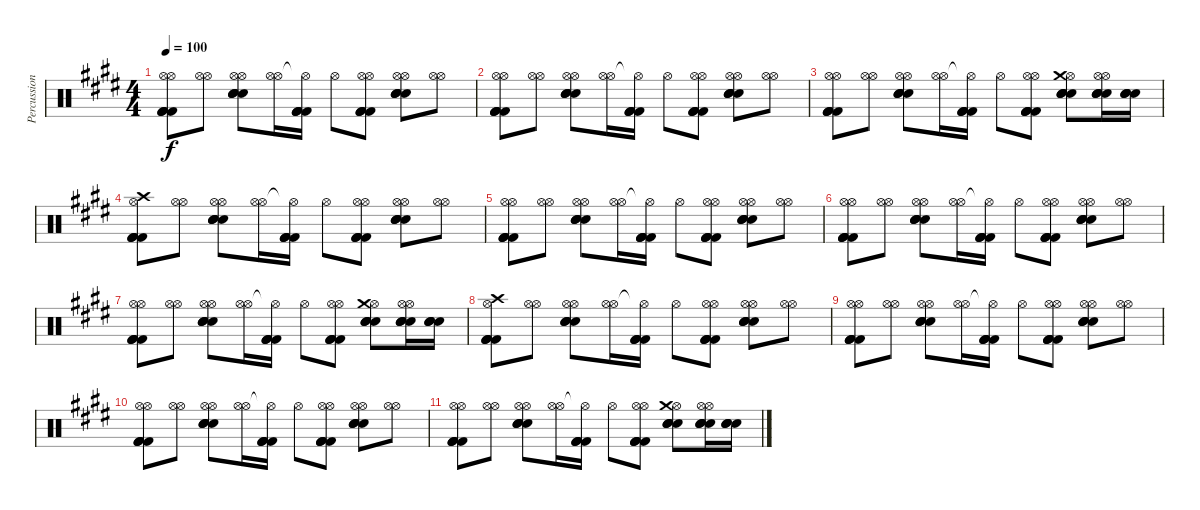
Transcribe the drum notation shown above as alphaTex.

\track ("Percussion" "Percussion") {instrument percussion}
\staff {score}
\articulation defaults
\ts (4 4)
\tempo 100
\clef neutral
\ks e
("Hi-Hat (open)" "Kick (hit) 2" "Kick (hit) 2" "Kick (hit) 2" "Kick (hit) 2" "Hi-Hat (open)").8{dy f} ("Hi-Hat (open)" "Hi-Hat (open)").8 ("Hi-Hat (open)" "Electric Snare (hit)" "Electric Snare (hit)" "Electric Snare (hit)" "Electric Snare (hit)" "Hi-Hat (open)").8 ("Hi-Hat (open)" "Hi-Hat (open)").16 ("Hi-Hat (open)"{t} "Kick (hit) 2" "Kick (hit) 2" "Kick (hit) 2" "Kick (hit) 2").16 "Hi-Hat (open)".8 ("Hi-Hat (open)" "Kick (hit) 2" "Kick (hit) 2" "Kick (hit) 2" "Kick (hit) 2" "Hi-Hat (open)").8 ("Hi-Hat (open)" "Electric Snare (hit)" "Electric Snare (hit)" "Electric Snare (hit)" "Electric Snare (hit)" "Hi-Hat (open)").8 ("Hi-Hat (open)" "Hi-Hat (open)").8 |
("Hi-Hat (open)" "Kick (hit) 2" "Kick (hit) 2" "Kick (hit) 2" "Kick (hit) 2" "Hi-Hat (open)").8 ("Hi-Hat (open)" "Hi-Hat (open)").8 ("Hi-Hat (open)" "Electric Snare (hit)" "Electric Snare (hit)" "Electric Snare (hit)" "Electric Snare (hit)" "Hi-Hat (open)").8 ("Hi-Hat (open)" "Hi-Hat (open)").16 ("Hi-Hat (open)"{t} "Kick (hit) 2" "Kick (hit) 2" "Kick (hit) 2" "Kick (hit) 2").16 "Hi-Hat (open)".8 ("Hi-Hat (open)" "Kick (hit) 2" "Kick (hit) 2" "Kick (hit) 2" "Kick (hit) 2" "Hi-Hat (open)").8 ("Hi-Hat (open)" "Electric Snare (hit)" "Electric Snare (hit)" "Electric Snare (hit)" "Electric Snare (hit)" "Hi-Hat (open)").8 ("Hi-Hat (open)" "Hi-Hat (open)").8 |
("Hi-Hat (open)" "Kick (hit) 2" "Kick (hit) 2" "Kick (hit) 2" "Kick (hit) 2" "Hi-Hat (open)").8 ("Hi-Hat (open)" "Hi-Hat (open)").8 ("Hi-Hat (open)" "Electric Snare (hit)" "Electric Snare (hit)" "Electric Snare (hit)" "Electric Snare (hit)" "Hi-Hat (open)").8 ("Hi-Hat (open)" "Hi-Hat (open)").16 ("Hi-Hat (open)"{t} "Kick (hit) 2" "Kick (hit) 2" "Kick (hit) 2" "Kick (hit) 2").16 "Hi-Hat (open)".8 ("Hi-Hat (open)" "Kick (hit) 2" "Kick (hit) 2" "Kick (hit) 2" "Kick (hit) 2" "Hi-Hat (open)").8 ("Hi-Hat (open)" "Electric Snare (hit)" "Electric Snare (hit)" "Electric Snare (hit)" "Electric Snare (hit)" "Crash medium (hit)").8 ("Hi-Hat (open)" "Electric Snare (hit)" "Electric Snare (hit)" "Electric Snare (hit)" "Electric Snare (hit)" "Hi-Hat (open)").16 ("Electric Snare (hit)" "Electric Snare (hit)" "Electric Snare (hit)" "Electric Snare (hit)").16 |
("Hi-Hat (open)" "Kick (hit) 2" "Kick (hit) 2" "Kick (hit) 2" "Kick (hit) 2" "Crash high (hit)").8 ("Hi-Hat (open)" "Hi-Hat (open)").8 ("Hi-Hat (open)" "Electric Snare (hit)" "Electric Snare (hit)" "Electric Snare (hit)" "Electric Snare (hit)" "Hi-Hat (open)").8 ("Hi-Hat (open)" "Hi-Hat (open)").16 ("Hi-Hat (open)"{t} "Kick (hit) 2" "Kick (hit) 2" "Kick (hit) 2" "Kick (hit) 2").16 "Hi-Hat (open)".8 ("Hi-Hat (open)" "Kick (hit) 2" "Kick (hit) 2" "Kick (hit) 2" "Kick (hit) 2" "Hi-Hat (open)").8 ("Hi-Hat (open)" "Electric Snare (hit)" "Electric Snare (hit)" "Electric Snare (hit)" "Electric Snare (hit)" "Hi-Hat (open)").8 ("Hi-Hat (open)" "Hi-Hat (open)").8 |
("Hi-Hat (open)" "Kick (hit) 2" "Kick (hit) 2" "Kick (hit) 2" "Kick (hit) 2" "Hi-Hat (open)").8 ("Hi-Hat (open)" "Hi-Hat (open)").8 ("Hi-Hat (open)" "Electric Snare (hit)" "Electric Snare (hit)" "Electric Snare (hit)" "Electric Snare (hit)" "Hi-Hat (open)").8 ("Hi-Hat (open)" "Hi-Hat (open)").16 ("Hi-Hat (open)"{t} "Kick (hit) 2" "Kick (hit) 2" "Kick (hit) 2" "Kick (hit) 2").16 "Hi-Hat (open)".8 ("Hi-Hat (open)" "Kick (hit) 2" "Kick (hit) 2" "Kick (hit) 2" "Kick (hit) 2" "Hi-Hat (open)").8 ("Hi-Hat (open)" "Electric Snare (hit)" "Electric Snare (hit)" "Electric Snare (hit)" "Electric Snare (hit)" "Hi-Hat (open)").8 ("Hi-Hat (open)" "Hi-Hat (open)").8 |
("Hi-Hat (open)" "Kick (hit) 2" "Kick (hit) 2" "Kick (hit) 2" "Kick (hit) 2" "Hi-Hat (open)").8 ("Hi-Hat (open)" "Hi-Hat (open)").8 ("Hi-Hat (open)" "Electric Snare (hit)" "Electric Snare (hit)" "Electric Snare (hit)" "Electric Snare (hit)" "Hi-Hat (open)").8 ("Hi-Hat (open)" "Hi-Hat (open)").16 ("Hi-Hat (open)"{t} "Kick (hit) 2" "Kick (hit) 2" "Kick (hit) 2" "Kick (hit) 2").16 "Hi-Hat (open)".8 ("Hi-Hat (open)" "Kick (hit) 2" "Kick (hit) 2" "Kick (hit) 2" "Kick (hit) 2" "Hi-Hat (open)").8 ("Hi-Hat (open)" "Electric Snare (hit)" "Electric Snare (hit)" "Electric Snare (hit)" "Electric Snare (hit)" "Hi-Hat (open)").8 ("Hi-Hat (open)" "Hi-Hat (open)").8 |
("Hi-Hat (open)" "Kick (hit) 2" "Kick (hit) 2" "Kick (hit) 2" "Kick (hit) 2" "Hi-Hat (open)").8 ("Hi-Hat (open)" "Hi-Hat (open)").8 ("Hi-Hat (open)" "Electric Snare (hit)" "Electric Snare (hit)" "Electric Snare (hit)" "Electric Snare (hit)" "Hi-Hat (open)").8 ("Hi-Hat (open)" "Hi-Hat (open)").16 ("Hi-Hat (open)"{t} "Kick (hit) 2" "Kick (hit) 2" "Kick (hit) 2" "Kick (hit) 2").16 "Hi-Hat (open)".8 ("Hi-Hat (open)" "Kick (hit) 2" "Kick (hit) 2" "Kick (hit) 2" "Kick (hit) 2" "Hi-Hat (open)").8 ("Hi-Hat (open)" "Electric Snare (hit)" "Electric Snare (hit)" "Electric Snare (hit)" "Electric Snare (hit)" "Crash medium (hit)").8 ("Hi-Hat (open)" "Electric Snare (hit)" "Electric Snare (hit)" "Electric Snare (hit)" "Electric Snare (hit)" "Hi-Hat (open)").16 ("Electric Snare (hit)" "Electric Snare (hit)" "Electric Snare (hit)" "Electric Snare (hit)").16 |
("Hi-Hat (open)" "Kick (hit) 2" "Kick (hit) 2" "Kick (hit) 2" "Kick (hit) 2" "Crash high (hit)").8 ("Hi-Hat (open)" "Hi-Hat (open)").8 ("Hi-Hat (open)" "Electric Snare (hit)" "Electric Snare (hit)" "Electric Snare (hit)" "Electric Snare (hit)" "Hi-Hat (open)").8 ("Hi-Hat (open)" "Hi-Hat (open)").16 ("Hi-Hat (open)"{t} "Kick (hit) 2" "Kick (hit) 2" "Kick (hit) 2" "Kick (hit) 2").16 "Hi-Hat (open)".8 ("Hi-Hat (open)" "Kick (hit) 2" "Kick (hit) 2" "Kick (hit) 2" "Kick (hit) 2" "Hi-Hat (open)").8 ("Hi-Hat (open)" "Electric Snare (hit)" "Electric Snare (hit)" "Electric Snare (hit)" "Electric Snare (hit)" "Hi-Hat (open)").8 ("Hi-Hat (open)" "Hi-Hat (open)").8 |
("Hi-Hat (open)" "Kick (hit) 2" "Kick (hit) 2" "Kick (hit) 2" "Kick (hit) 2" "Hi-Hat (open)").8 ("Hi-Hat (open)" "Hi-Hat (open)").8 ("Hi-Hat (open)" "Electric Snare (hit)" "Electric Snare (hit)" "Electric Snare (hit)" "Electric Snare (hit)" "Hi-Hat (open)").8 ("Hi-Hat (open)" "Hi-Hat (open)").16 ("Hi-Hat (open)"{t} "Kick (hit) 2" "Kick (hit) 2" "Kick (hit) 2" "Kick (hit) 2").16 "Hi-Hat (open)".8 ("Hi-Hat (open)" "Kick (hit) 2" "Kick (hit) 2" "Kick (hit) 2" "Kick (hit) 2" "Hi-Hat (open)").8 ("Hi-Hat (open)" "Electric Snare (hit)" "Electric Snare (hit)" "Electric Snare (hit)" "Electric Snare (hit)" "Hi-Hat (open)").8 ("Hi-Hat (open)" "Hi-Hat (open)").8 |
("Hi-Hat (open)" "Kick (hit) 2" "Kick (hit) 2" "Kick (hit) 2" "Kick (hit) 2" "Hi-Hat (open)").8 ("Hi-Hat (open)" "Hi-Hat (open)").8 ("Hi-Hat (open)" "Electric Snare (hit)" "Electric Snare (hit)" "Electric Snare (hit)" "Electric Snare (hit)" "Hi-Hat (open)").8 ("Hi-Hat (open)" "Hi-Hat (open)").16 ("Hi-Hat (open)"{t} "Kick (hit) 2" "Kick (hit) 2" "Kick (hit) 2" "Kick (hit) 2").16 "Hi-Hat (open)".8 ("Hi-Hat (open)" "Kick (hit) 2" "Kick (hit) 2" "Kick (hit) 2" "Kick (hit) 2" "Hi-Hat (open)").8 ("Hi-Hat (open)" "Electric Snare (hit)" "Electric Snare (hit)" "Electric Snare (hit)" "Electric Snare (hit)" "Hi-Hat (open)").8 ("Hi-Hat (open)" "Hi-Hat (open)").8 |
("Hi-Hat (open)" "Kick (hit) 2" "Kick (hit) 2" "Kick (hit) 2" "Kick (hit) 2" "Hi-Hat (open)").8 ("Hi-Hat (open)" "Hi-Hat (open)").8 ("Hi-Hat (open)" "Electric Snare (hit)" "Electric Snare (hit)" "Electric Snare (hit)" "Electric Snare (hit)" "Hi-Hat (open)").8 ("Hi-Hat (open)" "Hi-Hat (open)").16 ("Hi-Hat (open)"{t} "Kick (hit) 2" "Kick (hit) 2" "Kick (hit) 2" "Kick (hit) 2").16 "Hi-Hat (open)".8 ("Hi-Hat (open)" "Kick (hit) 2" "Kick (hit) 2" "Kick (hit) 2" "Kick (hit) 2" "Hi-Hat (open)").8 ("Hi-Hat (open)" "Electric Snare (hit)" "Electric Snare (hit)" "Electric Snare (hit)" "Electric Snare (hit)" "Crash medium (hit)").8 ("Hi-Hat (open)" "Electric Snare (hit)" "Electric Snare (hit)" "Electric Snare (hit)" "Electric Snare (hit)" "Hi-Hat (open)").16 ("Electric Snare (hit)" "Electric Snare (hit)" "Electric Snare (hit)" "Electric Snare (hit)").16
